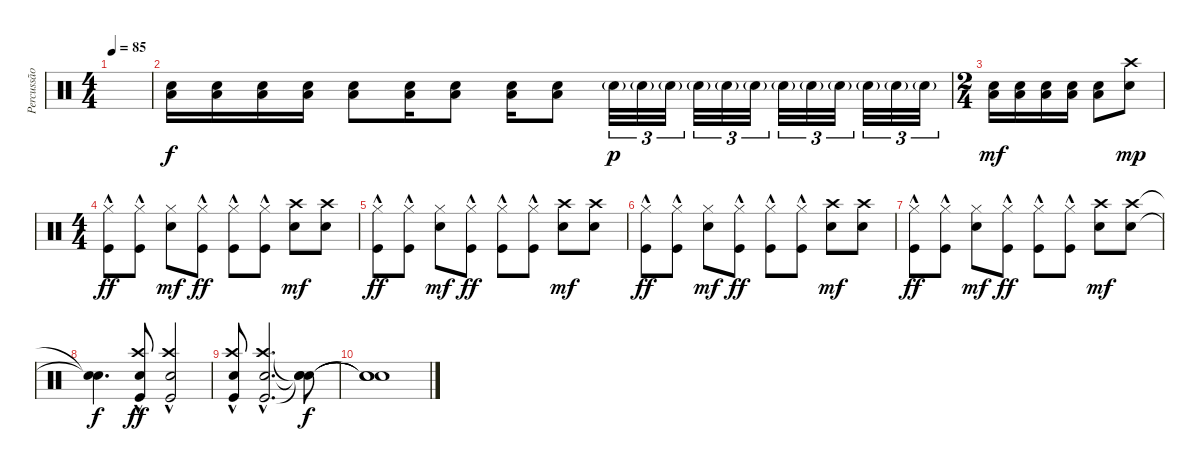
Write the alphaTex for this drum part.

\track ("Percussão" "Percussão") {instrument percussion}
\staff {score}
\articulation defaults
\ts (4 4)
\tempo 85
\clef neutral
\ks c
|
("Snare (hit) 2" "Low Floor Tom (hit)").16 ("Snare (hit) 2" "Low Floor Tom (hit)").16 ("Snare (hit) 2" "Low Floor Tom (hit)").16 ("Snare (hit) 2" "Low Floor Tom (hit)").16 ("Snare (hit) 2" "Low Floor Tom (hit)").8 ("Snare (hit) 2" "Low Floor Tom (hit)").16 ("Snare (hit) 2" "Low Floor Tom (hit)").8 ("Snare (hit) 2" "Low Floor Tom (hit)").16 ("Snare (hit) 2" "Low Floor Tom (hit)").8 "Snare (hit) 2"{g}.32{tu (3 2) dy p} "Snare (hit) 2"{g}.32{tu (3 2)} "Snare (hit) 2"{g}.32{tu (3 2) beam splitsecondary} "Snare (hit) 2"{g}.32{tu (3 2)} "Snare (hit) 2"{g}.32{tu (3 2)} "Snare (hit) 2"{g}.32{tu (3 2) beam splitsecondary} "Snare (hit) 2"{g}.32{tu (3 2)} "Snare (hit) 2"{g}.32{tu (3 2)} "Snare (hit) 2"{g}.32{tu (3 2) beam splitsecondary} "Snare (hit) 2"{g}.32{tu (3 2)} "Snare (hit) 2"{g}.32{tu (3 2)} "Snare (hit) 2"{g}.32{tu (3 2)} |
\ts (2 4)
("Snare (hit) 2" "Low Floor Tom (hit)").16{dy mf} ("Snare (hit) 2" "Low Floor Tom (hit)").16 ("Snare (hit) 2" "Low Floor Tom (hit)").16 ("Snare (hit) 2" "Low Floor Tom (hit)").16 ("Snare (hit) 2" "Low Floor Tom (hit)").8 ("Crash high (hit)" "Snare (hit) 2").8{dy mp} |
\ts (4 4)
("Hi-Hat (closed)" "Kick (hit)"{hac}).8{dy ff} ("Hi-Hat (closed)" "Kick (hit)"{hac}).8 ("Hi-Hat (closed)" "Snare (hit) 2").8{dy mf} ("Hi-Hat (closed)" "Kick (hit)"{hac}).8{dy ff} ("Hi-Hat (closed)" "Kick (hit)"{hac}).8 ("Hi-Hat (closed)" "Kick (hit)"{hac}).8 ("Crash high (hit)" "Snare (hit) 2").8{dy mf} ("Crash high (hit)" "Snare (hit) 2").8 |
("Hi-Hat (closed)" "Kick (hit)"{hac}).8{dy ff} ("Hi-Hat (closed)" "Kick (hit)"{hac}).8 ("Hi-Hat (closed)" "Snare (hit) 2").8{dy mf} ("Hi-Hat (closed)" "Kick (hit)"{hac}).8{dy ff} ("Hi-Hat (closed)" "Kick (hit)"{hac}).8 ("Hi-Hat (closed)" "Kick (hit)"{hac}).8 ("Crash high (hit)" "Snare (hit) 2").8{dy mf} ("Crash high (hit)" "Snare (hit) 2").8 |
("Hi-Hat (closed)" "Kick (hit)"{hac}).8{dy ff} ("Hi-Hat (closed)" "Kick (hit)"{hac}).8 ("Hi-Hat (closed)" "Snare (hit) 2").8{dy mf} ("Hi-Hat (closed)" "Kick (hit)"{hac}).8{dy ff} ("Hi-Hat (closed)" "Kick (hit)"{hac}).8 ("Hi-Hat (closed)" "Kick (hit)"{hac}).8 ("Crash high (hit)" "Snare (hit) 2").8{dy mf} ("Crash high (hit)" "Snare (hit) 2").8 |
("Hi-Hat (closed)" "Kick (hit)"{hac}).8{dy ff} ("Hi-Hat (closed)" "Kick (hit)"{hac}).8 ("Hi-Hat (closed)" "Snare (hit) 2").8{dy mf} ("Hi-Hat (closed)" "Kick (hit)"{hac}).8{dy ff} ("Hi-Hat (closed)" "Kick (hit)"{hac}).8 ("Hi-Hat (closed)" "Kick (hit)"{hac}).8 ("Crash high (hit)" "Snare (hit) 2").8{dy mf} ("Crash high (hit)" "Snare (hit) 2").8 |
("Snare (hit)"{t} "Snare (hit)"{t}).4{d dy f} ("Crash high (hit)" "Snare (hit) 2" "Kick (hit)"{hac}).8{dy ff} ("Crash high (hit)" "Snare (hit) 2" "Kick (hit)"{hac}).2 |
("Crash high (hit)" "Snare (hit) 2" "Kick (hit)"{hac}).8 ("Crash high (hit)" "Snare (hit) 2" "Kick (hit)"{hac}).2{d} ("Snare (hit)"{t} "Snare (hit)"{t} "Snare (hit)"{t}).8{dy f} |
("Snare (hit)"{t} "Snare (hit)"{t} "Snare (hit)"{t}).1
